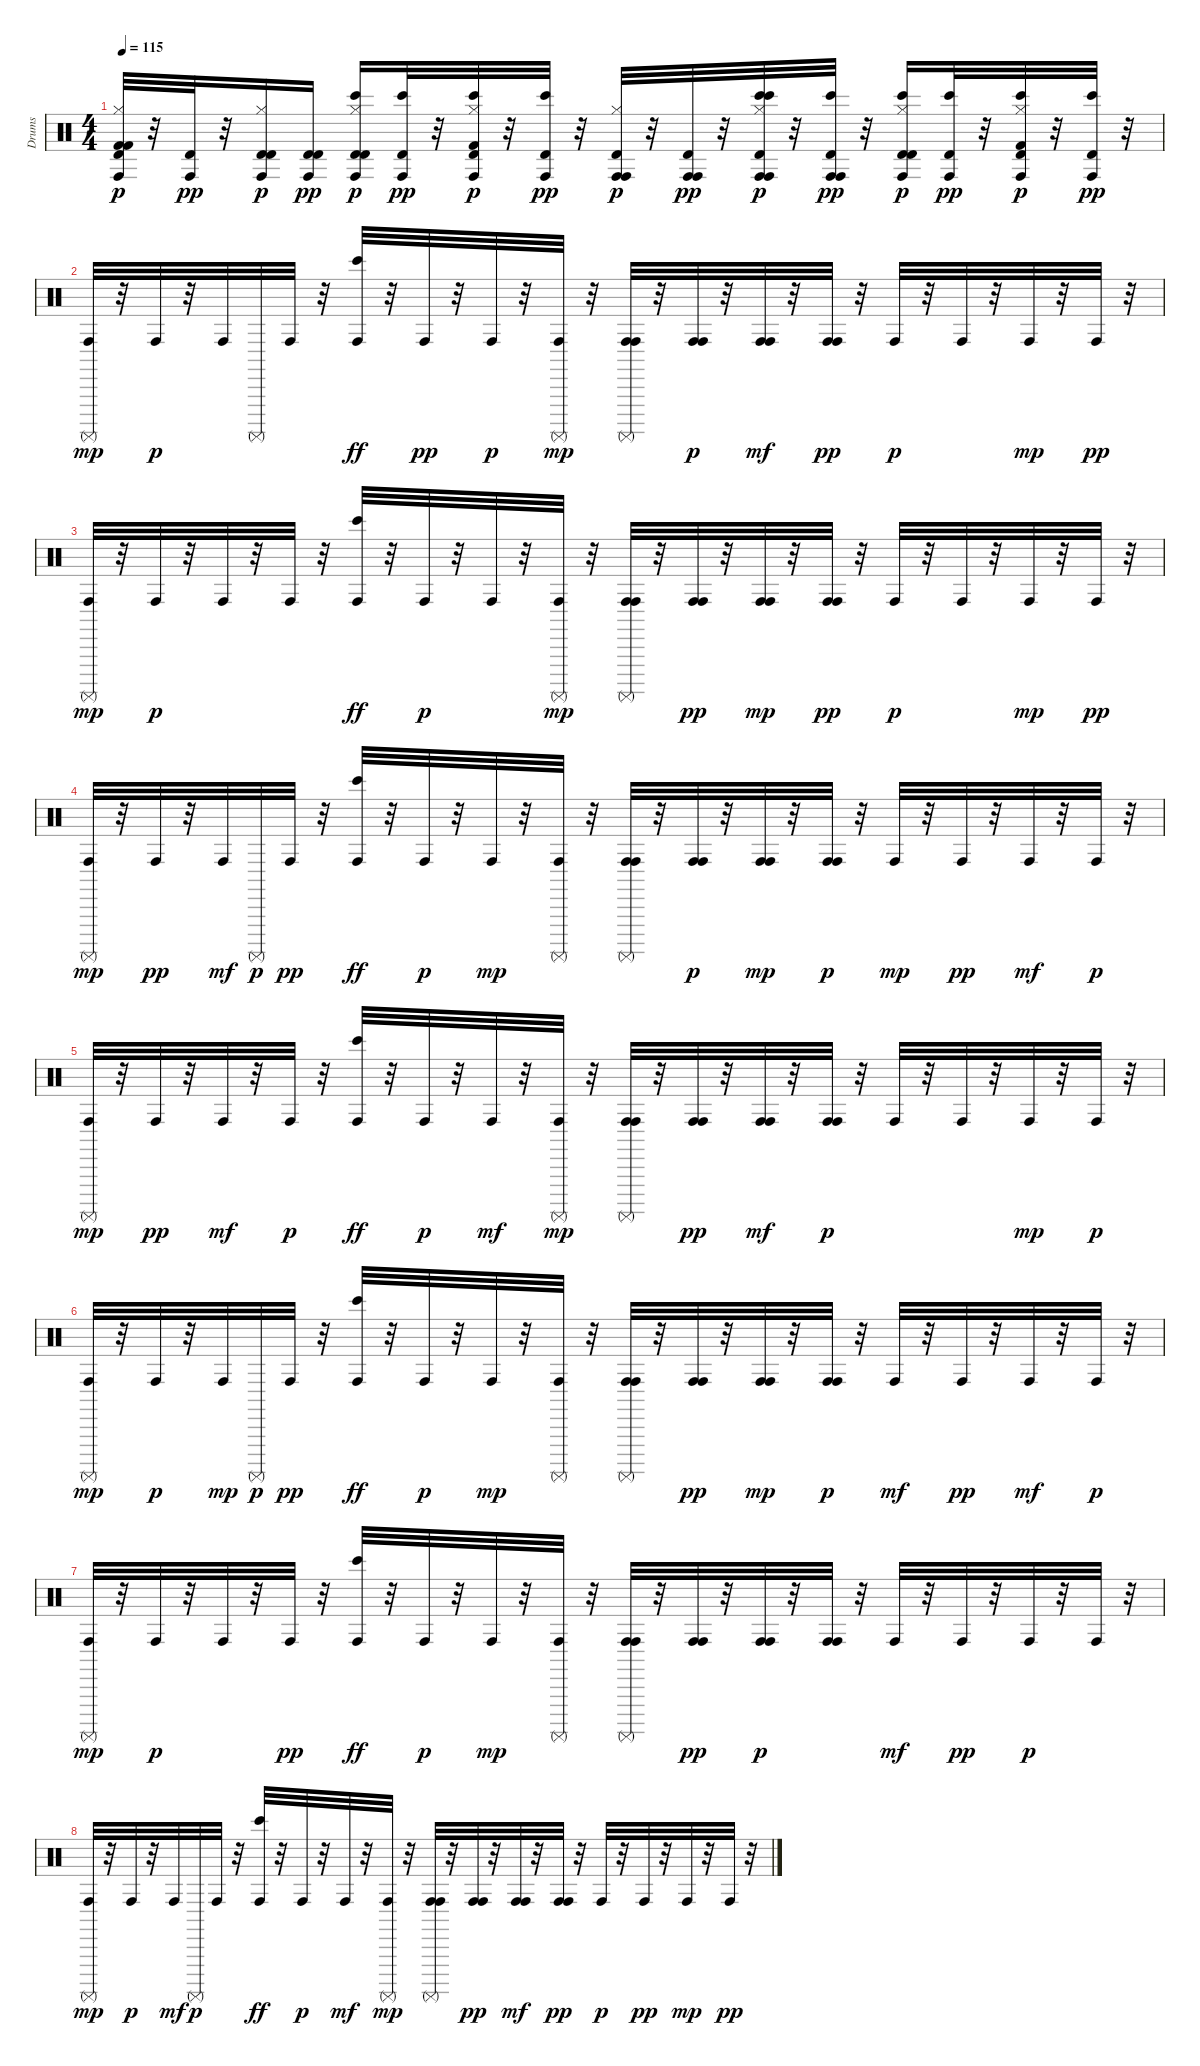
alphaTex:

\track ("Drums" "Drums") {instrument percussion}
\staff {score}
\articulation defaults
\ts (4 4)
\tempo 115
\clef neutral
\ks c
("Conga high (hit)" "Kick (hit) 2" "Hi-Hat (closed)" "Kick (hit) 2" "Timbale high (hit)").32{dy p} r.32 ("Conga high (hit)" "Timbale high (hit)").32{dy pp} r.32 ("Conga high (hit)" "Timbale high (hit)" "Hi-Hat (closed)" "Timbale high (hit)").16{dy p} ("Conga high (hit)" "Timbale high (hit)" "Timbale high (hit)").16{dy pp} ("Conga high (hit)" "Timbale high (hit)" "Bongo High (hit)" "Hi-Hat (closed)" "Timbale high (hit)").16{dy p} ("Conga high (hit)" "Bongo High (hit)" "Timbale high (hit)").32{dy pp} r.32 ("Conga high (hit)" "Bongo High (hit)" "Hi-Hat (closed)" "Kick (hit) 2" "Timbale high (hit)").32{dy p} r.32 ("Conga high (hit)" "Bongo High (hit)" "Timbale high (hit)").32{dy pp} r.32 ("Conga high (hit)" "Conga high (hit)" "Hi-Hat (closed)" "Timbale high (hit)").32{dy p} r.32 ("Conga high (hit)" "Conga high (hit)" "Timbale high (hit)").32{dy pp} r.32 ("Conga high (hit)" "Conga high (hit)" "Bongo High (hit)" "Bongo High (hit)" "Hi-Hat (closed)" "Timbale high (hit)").32{dy p} r.32 ("Conga high (hit)" "Conga high (hit)" "Bongo High (hit)" "Timbale high (hit)").32{dy pp} r.32 ("Conga high (hit)" "Bongo High (hit)" "Timbale high (hit)" "Hi-Hat (closed)" "Timbale high (hit)").16{dy p} ("Conga high (hit)" "Bongo High (hit)" "Timbale high (hit)").32{dy pp} r.32 ("Conga high (hit)" "Bongo High (hit)" "Kick (hit) 2" "Hi-Hat (closed)" "Timbale high (hit)").32{dy p} r.32 ("Conga high (hit)" "Bongo High (hit)" "Timbale high (hit)").32{dy pp} r.32 |
("Conga high (hit)" "Surdo (mute)").32{dy mp} r.32 "Conga high (hit)".32{dy p} r.32 "Conga high (hit)".32 "Surdo (mute)".32 "Conga high (hit)".32 r.32 ("Conga high (hit)" "Bongo High (hit)").32{dy ff} r.32 "Conga high (hit)".32{dy pp} r.32 "Conga high (hit)".32{dy p} r.32 ("Conga high (hit)" "Surdo (mute)").32{dy mp} r.32 ("Conga high (hit)" "Conga high (hit)" "Surdo (mute)").32 r.32 ("Conga high (hit)" "Conga high (hit)").32{dy p} r.32 ("Conga high (hit)" "Conga high (hit)").32{dy mf} r.32 ("Conga high (hit)" "Conga high (hit)").32{dy pp} r.32 "Conga high (hit)".32{dy p} r.32 "Conga high (hit)".32 r.32 "Conga high (hit)".32{dy mp} r.32 "Conga high (hit)".32{dy pp} r.32 |
("Conga high (hit)" "Surdo (mute)").32{dy mp} r.32 "Conga high (hit)".32{dy p} r.32 "Conga high (hit)".32 r.32 "Conga high (hit)".32 r.32 ("Conga high (hit)" "Bongo High (hit)").32{dy ff} r.32 "Conga high (hit)".32{dy p} r.32 "Conga high (hit)".32 r.32 ("Conga high (hit)" "Surdo (mute)").32{dy mp} r.32 ("Conga high (hit)" "Conga high (hit)" "Surdo (mute)").32 r.32 ("Conga high (hit)" "Conga high (hit)").32{dy pp} r.32 ("Conga high (hit)" "Conga high (hit)").32{dy mp} r.32 ("Conga high (hit)" "Conga high (hit)").32{dy pp} r.32 "Conga high (hit)".32{dy p} r.32 "Conga high (hit)".32 r.32 "Conga high (hit)".32{dy mp} r.32 "Conga high (hit)".32{dy pp} r.32 |
("Conga high (hit)" "Surdo (mute)").32{dy mp} r.32 "Conga high (hit)".32{dy pp} r.32 "Conga high (hit)".32{dy mf} "Surdo (mute)".32{dy p} "Conga high (hit)".32{dy pp} r.32 ("Conga high (hit)" "Bongo High (hit)").32{dy ff} r.32 "Conga high (hit)".32{dy p} r.32 "Conga high (hit)".32{dy mp} r.32 ("Conga high (hit)" "Surdo (mute)").32 r.32 ("Conga high (hit)" "Conga high (hit)" "Surdo (mute)").32 r.32 ("Conga high (hit)" "Conga high (hit)").32{dy p} r.32 ("Conga high (hit)" "Conga high (hit)").32{dy mp} r.32 ("Conga high (hit)" "Conga high (hit)").32{dy p} r.32 "Conga high (hit)".32{dy mp} r.32 "Conga high (hit)".32{dy pp} r.32 "Conga high (hit)".32{dy mf} r.32 "Conga high (hit)".32{dy p} r.32 |
("Conga high (hit)" "Surdo (mute)").32{dy mp} r.32 "Conga high (hit)".32{dy pp} r.32 "Conga high (hit)".32{dy mf} r.32 "Conga high (hit)".32{dy p} r.32 ("Conga high (hit)" "Bongo High (hit)").32{dy ff} r.32 "Conga high (hit)".32{dy p} r.32 "Conga high (hit)".32{dy mf} r.32 ("Conga high (hit)" "Surdo (mute)").32{dy mp} r.32 ("Conga high (hit)" "Conga high (hit)" "Surdo (mute)").32 r.32 ("Conga high (hit)" "Conga high (hit)").32{dy pp} r.32 ("Conga high (hit)" "Conga high (hit)").32{dy mf} r.32 ("Conga high (hit)" "Conga high (hit)").32{dy p} r.32 "Conga high (hit)".32 r.32 "Conga high (hit)".32 r.32 "Conga high (hit)".32{dy mp} r.32 "Conga high (hit)".32{dy p} r.32 |
("Conga high (hit)" "Surdo (mute)").32{dy mp} r.32 "Conga high (hit)".32{dy p} r.32 "Conga high (hit)".32{dy mp} "Surdo (mute)".32{dy p} "Conga high (hit)".32{dy pp} r.32 ("Conga high (hit)" "Bongo High (hit)").32{dy ff} r.32 "Conga high (hit)".32{dy p} r.32 "Conga high (hit)".32{dy mp} r.32 ("Conga high (hit)" "Surdo (mute)").32 r.32 ("Conga high (hit)" "Conga high (hit)" "Surdo (mute)").32 r.32 ("Conga high (hit)" "Conga high (hit)").32{dy pp} r.32 ("Conga high (hit)" "Conga high (hit)").32{dy mp} r.32 ("Conga high (hit)" "Conga high (hit)").32{dy p} r.32 "Conga high (hit)".32{dy mf} r.32 "Conga high (hit)".32{dy pp} r.32 "Conga high (hit)".32{dy mf} r.32 "Conga high (hit)".32{dy p} r.32 |
("Conga high (hit)" "Surdo (mute)").32{dy mp} r.32 "Conga high (hit)".32{dy p} r.32 "Conga high (hit)".32 r.32 "Conga high (hit)".32{dy pp} r.32 ("Conga high (hit)" "Bongo High (hit)").32{dy ff} r.32 "Conga high (hit)".32{dy p} r.32 "Conga high (hit)".32{dy mp} r.32 ("Conga high (hit)" "Surdo (mute)").32 r.32 ("Conga high (hit)" "Conga high (hit)" "Surdo (mute)").32 r.32 ("Conga high (hit)" "Conga high (hit)").32{dy pp} r.32 ("Conga high (hit)" "Conga high (hit)").32{dy p} r.32 ("Conga high (hit)" "Conga high (hit)").32 r.32 "Conga high (hit)".32{dy mf} r.32 "Conga high (hit)".32{dy pp} r.32 "Conga high (hit)".32{dy p} r.32 "Conga high (hit)".32 r.32 |
("Conga high (hit)" "Surdo (mute)").32{dy mp} r.32 "Conga high (hit)".32{dy p} r.32 "Conga high (hit)".32{dy mf} "Surdo (mute)".32{dy p} "Conga high (hit)".32 r.32 ("Conga high (hit)" "Bongo High (hit)").32{dy ff} r.32 "Conga high (hit)".32{dy p} r.32 "Conga high (hit)".32{dy mf} r.32 ("Conga high (hit)" "Surdo (mute)").32{dy mp} r.32 ("Conga high (hit)" "Conga high (hit)" "Surdo (mute)").32 r.32 ("Conga high (hit)" "Conga high (hit)").32{dy pp} r.32 ("Conga high (hit)" "Conga high (hit)").32{dy mf} r.32 ("Conga high (hit)" "Conga high (hit)").32{dy pp} r.32 "Conga high (hit)".32{dy p} r.32 "Conga high (hit)".32{dy pp} r.32 "Conga high (hit)".32{dy mp} r.32 "Conga high (hit)".32{dy pp} r.32
